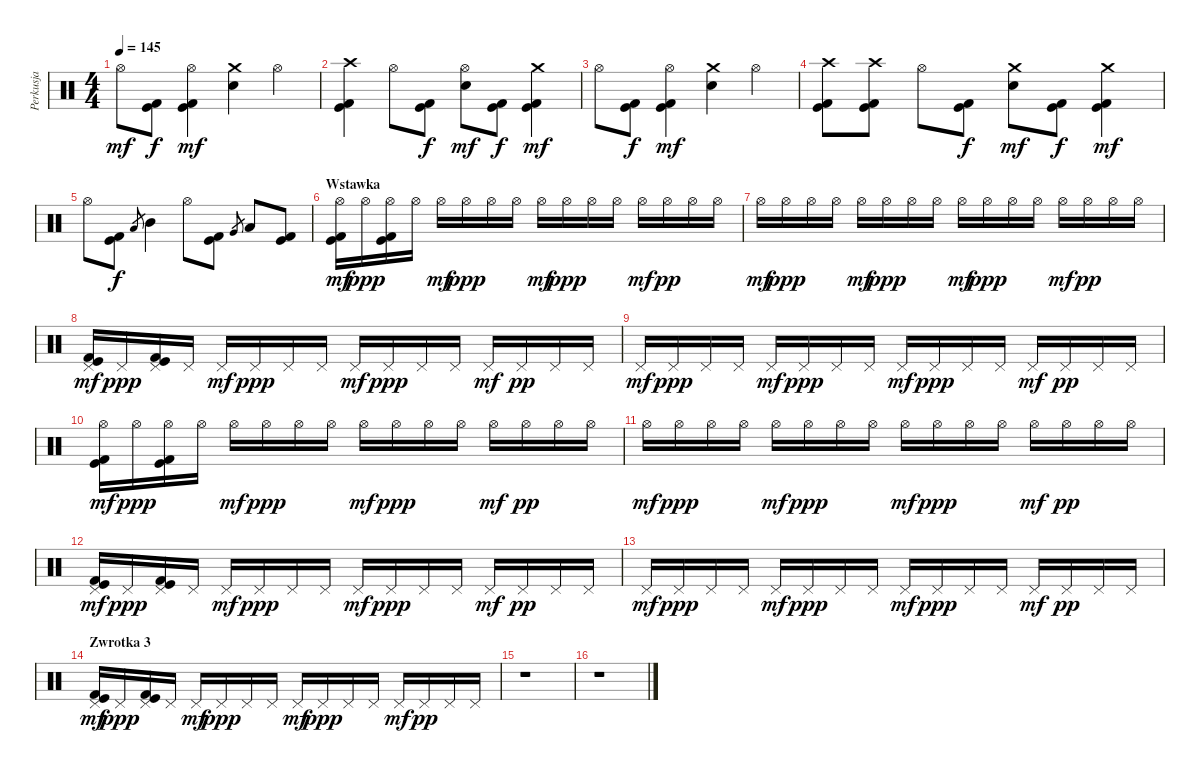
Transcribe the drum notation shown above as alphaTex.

\track ("Perkusja" "Perkusja") {instrument percussion}
\staff {score}
\articulation defaults
\ts (4 4)
\tempo 145
\clef neutral
\ks c "Hi-Hat (open)".8{dy mf}
("Kick (hit) 2" "Kick (hit)").8{dy f} ("Kick (hit) 2" "Kick (hit)" "Hi-Hat (open)").4{dy mf} ("Snare (hit) 2" "Crash medium (hit)").4 "Hi-Hat (open)".4 |
("Kick (hit) 2" "Kick (hit)" "Crash high (hit)").4 "Hi-Hat (open)".8 ("Kick (hit) 2" "Kick (hit)").8{dy f} ("Snare (hit) 2" "Hi-Hat (open)").8{dy mf} ("Kick (hit) 2" "Kick (hit)").8{dy f} ("Kick (hit)" "Kick (hit) 2" "Crash medium (hit)").4{dy mf} |
"Hi-Hat (open)".8 ("Kick (hit) 2" "Kick (hit)").8{dy f} ("Kick (hit) 2" "Kick (hit)" "Hi-Hat (open)").4{dy mf} ("Snare (hit) 2" "Crash medium (hit)").4 "Hi-Hat (open)".4 |
("Kick (hit) 2" "Kick (hit)" "Crash high (hit)").8 ("Kick (hit) 2" "Kick (hit)" "Crash high (hit)").8 "Hi-Hat (open)".8 ("Kick (hit) 2" "Kick (hit)").8{dy f} ("Snare (hit) 2" "Crash medium (hit)").8{dy mf} ("Kick (hit) 2" "Kick (hit)").8{dy f} ("Kick (hit)" "Kick (hit) 2" "Crash medium (hit)").4{dy mf} |
"Hi-Hat (open)".8 ("Kick (hit) 2" "Kick (hit)").8{dy f} "Low Tom (hit)".8{gr} "Mid Tom (hit)".4 "Hi-Hat (open)".8 ("Kick (hit) 2" "Kick (hit)").8 "Very Low Tom (hit)".8{gr} "Low Tom (hit)".8 ("Kick (hit) 2" "Kick (hit)").8 |
\section ("" "Wstawka")
("Hi-Hat (open)" "Kick (hit) 2" "Kick (hit)").16{dy mf} "Hi-Hat (open)".16{dy ppp} ("Hi-Hat (open)" "Kick (hit) 2" "Kick (hit)").16 "Hi-Hat (open)".16 "Hi-Hat (open)".16{dy mf} "Hi-Hat (open)".16{dy ppp} "Hi-Hat (open)".16 "Hi-Hat (open)".16 "Hi-Hat (open)".16{dy mf} "Hi-Hat (open)".16{dy ppp} "Hi-Hat (open)".16 "Hi-Hat (open)".16 "Hi-Hat (open)".16{dy mf} "Hi-Hat (open)".16{dy pp} "Hi-Hat (open)".16 "Hi-Hat (open)".16 |
"Hi-Hat (open)".16{dy mf} "Hi-Hat (open)".16{dy ppp} "Hi-Hat (open)".16 "Hi-Hat (open)".16 "Hi-Hat (open)".16{dy mf} "Hi-Hat (open)".16{dy ppp} "Hi-Hat (open)".16 "Hi-Hat (open)".16 "Hi-Hat (open)".16{dy mf} "Hi-Hat (open)".16{dy ppp} "Hi-Hat (open)".16 "Hi-Hat (open)".16 "Hi-Hat (open)".16{dy mf} "Hi-Hat (open)".16{dy pp} "Hi-Hat (open)".16 "Hi-Hat (open)".16 |
("Pedal Hi-Hat (hit)" "Kick (hit) 2" "Kick (hit)").16{dy mf} "Pedal Hi-Hat (hit)".16{dy ppp} ("Pedal Hi-Hat (hit)" "Kick (hit) 2" "Kick (hit)").16 "Pedal Hi-Hat (hit)".16 "Pedal Hi-Hat (hit)".16{dy mf} "Pedal Hi-Hat (hit)".16{dy ppp} "Pedal Hi-Hat (hit)".16 "Pedal Hi-Hat (hit)".16 "Pedal Hi-Hat (hit)".16{dy mf} "Pedal Hi-Hat (hit)".16{dy ppp} "Pedal Hi-Hat (hit)".16 "Pedal Hi-Hat (hit)".16 "Pedal Hi-Hat (hit)".16{dy mf} "Pedal Hi-Hat (hit)".16{dy pp} "Pedal Hi-Hat (hit)".16 "Pedal Hi-Hat (hit)".16 |
"Pedal Hi-Hat (hit)".16{dy mf} "Pedal Hi-Hat (hit)".16{dy ppp} "Pedal Hi-Hat (hit)".16 "Pedal Hi-Hat (hit)".16 "Pedal Hi-Hat (hit)".16{dy mf} "Pedal Hi-Hat (hit)".16{dy ppp} "Pedal Hi-Hat (hit)".16 "Pedal Hi-Hat (hit)".16 "Pedal Hi-Hat (hit)".16{dy mf} "Pedal Hi-Hat (hit)".16{dy ppp} "Pedal Hi-Hat (hit)".16 "Pedal Hi-Hat (hit)".16 "Pedal Hi-Hat (hit)".16{dy mf} "Pedal Hi-Hat (hit)".16{dy pp} "Pedal Hi-Hat (hit)".16 "Pedal Hi-Hat (hit)".16 |
("Hi-Hat (open)" "Kick (hit) 2" "Kick (hit)").16{dy mf} "Hi-Hat (open)".16{dy ppp} ("Hi-Hat (open)" "Kick (hit) 2" "Kick (hit)").16 "Hi-Hat (open)".16 "Hi-Hat (open)".16{dy mf} "Hi-Hat (open)".16{dy ppp} "Hi-Hat (open)".16 "Hi-Hat (open)".16 "Hi-Hat (open)".16{dy mf} "Hi-Hat (open)".16{dy ppp} "Hi-Hat (open)".16 "Hi-Hat (open)".16 "Hi-Hat (open)".16{dy mf} "Hi-Hat (open)".16{dy pp} "Hi-Hat (open)".16 "Hi-Hat (open)".16 |
"Hi-Hat (open)".16{dy mf} "Hi-Hat (open)".16{dy ppp} "Hi-Hat (open)".16 "Hi-Hat (open)".16 "Hi-Hat (open)".16{dy mf} "Hi-Hat (open)".16{dy ppp} "Hi-Hat (open)".16 "Hi-Hat (open)".16 "Hi-Hat (open)".16{dy mf} "Hi-Hat (open)".16{dy ppp} "Hi-Hat (open)".16 "Hi-Hat (open)".16 "Hi-Hat (open)".16{dy mf} "Hi-Hat (open)".16{dy pp} "Hi-Hat (open)".16 "Hi-Hat (open)".16 |
("Pedal Hi-Hat (hit)" "Kick (hit) 2" "Kick (hit)").16{dy mf} "Pedal Hi-Hat (hit)".16{dy ppp} ("Pedal Hi-Hat (hit)" "Kick (hit) 2" "Kick (hit)").16 "Pedal Hi-Hat (hit)".16 "Pedal Hi-Hat (hit)".16{dy mf} "Pedal Hi-Hat (hit)".16{dy ppp} "Pedal Hi-Hat (hit)".16 "Pedal Hi-Hat (hit)".16 "Pedal Hi-Hat (hit)".16{dy mf} "Pedal Hi-Hat (hit)".16{dy ppp} "Pedal Hi-Hat (hit)".16 "Pedal Hi-Hat (hit)".16 "Pedal Hi-Hat (hit)".16{dy mf} "Pedal Hi-Hat (hit)".16{dy pp} "Pedal Hi-Hat (hit)".16 "Pedal Hi-Hat (hit)".16 |
"Pedal Hi-Hat (hit)".16{dy mf} "Pedal Hi-Hat (hit)".16{dy ppp} "Pedal Hi-Hat (hit)".16 "Pedal Hi-Hat (hit)".16 "Pedal Hi-Hat (hit)".16{dy mf} "Pedal Hi-Hat (hit)".16{dy ppp} "Pedal Hi-Hat (hit)".16 "Pedal Hi-Hat (hit)".16 "Pedal Hi-Hat (hit)".16{dy mf} "Pedal Hi-Hat (hit)".16{dy ppp} "Pedal Hi-Hat (hit)".16 "Pedal Hi-Hat (hit)".16 "Pedal Hi-Hat (hit)".16{dy mf} "Pedal Hi-Hat (hit)".16{dy pp} "Pedal Hi-Hat (hit)".16 "Pedal Hi-Hat (hit)".16 |
\section ("" "Zwrotka 3")
("Pedal Hi-Hat (hit)" "Kick (hit) 2" "Kick (hit)").16{dy mf volume 0} "Pedal Hi-Hat (hit)".16{dy ppp} ("Pedal Hi-Hat (hit)" "Kick (hit) 2" "Kick (hit)").16 "Pedal Hi-Hat (hit)".16 "Pedal Hi-Hat (hit)".16{dy mf} "Pedal Hi-Hat (hit)".16{dy ppp} "Pedal Hi-Hat (hit)".16 "Pedal Hi-Hat (hit)".16 "Pedal Hi-Hat (hit)".16{dy mf} "Pedal Hi-Hat (hit)".16{dy ppp} "Pedal Hi-Hat (hit)".16 "Pedal Hi-Hat (hit)".16 "Pedal Hi-Hat (hit)".16{dy mf} "Pedal Hi-Hat (hit)".16{dy pp} "Pedal Hi-Hat (hit)".16 "Pedal Hi-Hat (hit)".16 |
r.1 |
r.1
